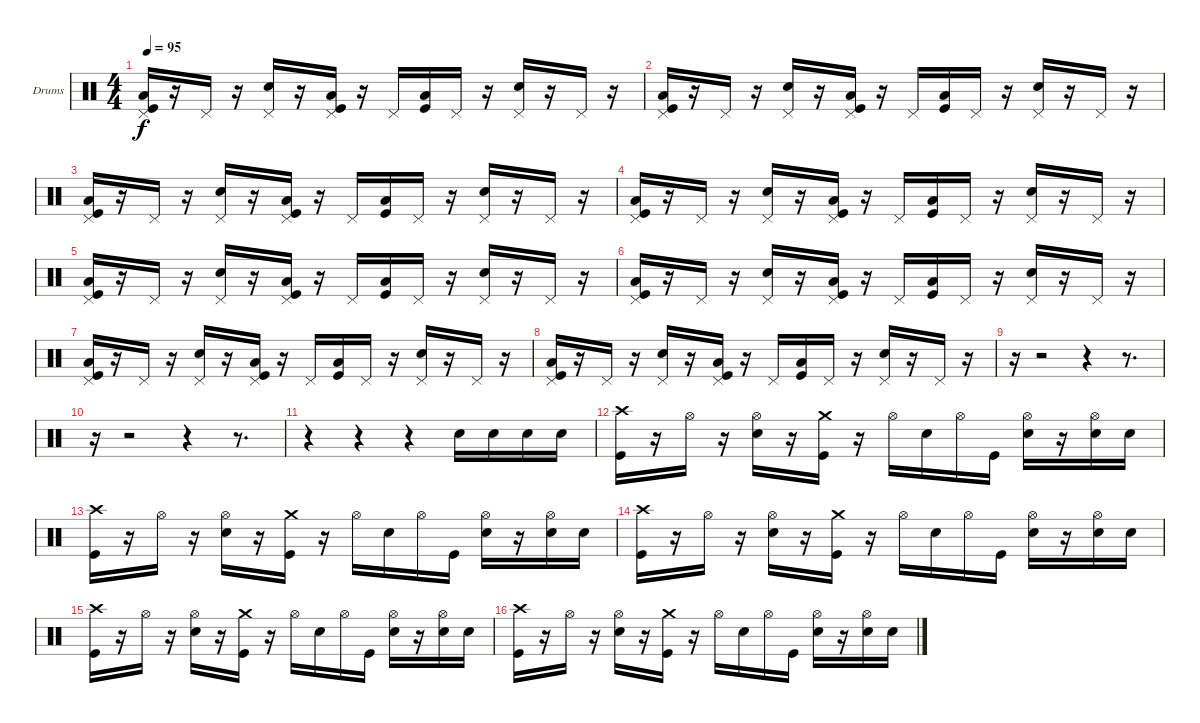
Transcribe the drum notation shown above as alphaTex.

\bracketExtendMode groupsimilarinstruments
\firstSystemTrackNameOrientation horizontal
\otherSystemsTrackNameOrientation horizontal
\track ("Drumkit" "Drums") {instrument percussion}
\staff {score}
\articulation defaults
\ts (4 4)
\tempo 95
\clef neutral
\ks c
("Pedal Hi-Hat (hit)" "Low Tom (hit)" "Kick (hit)").16{dy f} r.16 "Pedal Hi-Hat (hit)".16 r.16 ("Pedal Hi-Hat (hit)" "Snare (hit) 2").16 r.16 ("Pedal Hi-Hat (hit)" "Low Tom (hit)" "Kick (hit)").16 r.16 "Pedal Hi-Hat (hit)".16 ("Low Tom (hit)" "Kick (hit)").16 "Pedal Hi-Hat (hit)".16 r.16 ("Pedal Hi-Hat (hit)" "Snare (hit) 2").16 r.16 "Pedal Hi-Hat (hit)".16 r.16 |
("Pedal Hi-Hat (hit)" "Low Tom (hit)" "Kick (hit)").16 r.16 "Pedal Hi-Hat (hit)".16 r.16 ("Pedal Hi-Hat (hit)" "Snare (hit) 2").16 r.16 ("Pedal Hi-Hat (hit)" "Low Tom (hit)" "Kick (hit)").16 r.16 "Pedal Hi-Hat (hit)".16 ("Low Tom (hit)" "Kick (hit)").16 "Pedal Hi-Hat (hit)".16 r.16 ("Pedal Hi-Hat (hit)" "Snare (hit) 2").16 r.16 "Pedal Hi-Hat (hit)".16 r.16 |
("Pedal Hi-Hat (hit)" "Low Tom (hit)" "Kick (hit)").16 r.16 "Pedal Hi-Hat (hit)".16 r.16 ("Pedal Hi-Hat (hit)" "Snare (hit) 2").16 r.16 ("Pedal Hi-Hat (hit)" "Low Tom (hit)" "Kick (hit)").16 r.16 "Pedal Hi-Hat (hit)".16 ("Low Tom (hit)" "Kick (hit)").16 "Pedal Hi-Hat (hit)".16 r.16 ("Pedal Hi-Hat (hit)" "Snare (hit) 2").16 r.16 "Pedal Hi-Hat (hit)".16 r.16 |
("Pedal Hi-Hat (hit)" "Low Tom (hit)" "Kick (hit)").16 r.16 "Pedal Hi-Hat (hit)".16 r.16 ("Pedal Hi-Hat (hit)" "Snare (hit) 2").16 r.16 ("Pedal Hi-Hat (hit)" "Low Tom (hit)" "Kick (hit)").16 r.16 "Pedal Hi-Hat (hit)".16 ("Low Tom (hit)" "Kick (hit)").16 "Pedal Hi-Hat (hit)".16 r.16 ("Pedal Hi-Hat (hit)" "Snare (hit) 2").16 r.16 "Pedal Hi-Hat (hit)".16 r.16 |
("Pedal Hi-Hat (hit)" "Low Tom (hit)" "Kick (hit)").16 r.16 "Pedal Hi-Hat (hit)".16 r.16 ("Pedal Hi-Hat (hit)" "Snare (hit) 2").16 r.16 ("Pedal Hi-Hat (hit)" "Low Tom (hit)" "Kick (hit)").16 r.16 "Pedal Hi-Hat (hit)".16 ("Low Tom (hit)" "Kick (hit)").16 "Pedal Hi-Hat (hit)".16 r.16 ("Pedal Hi-Hat (hit)" "Snare (hit) 2").16 r.16 "Pedal Hi-Hat (hit)".16 r.16 |
("Pedal Hi-Hat (hit)" "Low Tom (hit)" "Kick (hit)").16 r.16 "Pedal Hi-Hat (hit)".16 r.16 ("Pedal Hi-Hat (hit)" "Snare (hit) 2").16 r.16 ("Pedal Hi-Hat (hit)" "Low Tom (hit)" "Kick (hit)").16 r.16 "Pedal Hi-Hat (hit)".16 ("Low Tom (hit)" "Kick (hit)").16 "Pedal Hi-Hat (hit)".16 r.16 ("Pedal Hi-Hat (hit)" "Snare (hit) 2").16 r.16 "Pedal Hi-Hat (hit)".16 r.16 |
("Pedal Hi-Hat (hit)" "Low Tom (hit)" "Kick (hit)").16 r.16 "Pedal Hi-Hat (hit)".16 r.16 ("Pedal Hi-Hat (hit)" "Snare (hit) 2").16 r.16 ("Pedal Hi-Hat (hit)" "Low Tom (hit)" "Kick (hit)").16 r.16 "Pedal Hi-Hat (hit)".16 ("Low Tom (hit)" "Kick (hit)").16 "Pedal Hi-Hat (hit)".16 r.16 ("Pedal Hi-Hat (hit)" "Snare (hit) 2").16 r.16 "Pedal Hi-Hat (hit)".16 r.16 |
("Pedal Hi-Hat (hit)" "Low Tom (hit)" "Kick (hit)").16 r.16 "Pedal Hi-Hat (hit)".16 r.16 ("Pedal Hi-Hat (hit)" "Snare (hit) 2").16 r.16 ("Pedal Hi-Hat (hit)" "Low Tom (hit)" "Kick (hit)").16 r.16 "Pedal Hi-Hat (hit)".16 ("Low Tom (hit)" "Kick (hit)").16 "Pedal Hi-Hat (hit)".16 r.16 ("Pedal Hi-Hat (hit)" "Snare (hit) 2").16 r.16 "Pedal Hi-Hat (hit)".16 r.16 |
r.16 r.2 r.4 r.8{d} |
r.16 r.2 r.4 r.8{d} |
r.4 r.4 r.4 "Snare (hit) 2".16 "Snare (hit) 2".16 "Snare (hit) 2".16 "Snare (hit) 2".16 |
("Crash high (hit)" "Kick (hit)").16 r.16 "Hi-Hat (open)".16 r.16 ("Hi-Hat (open)" "Snare (hit) 2").16 r.16 ("Crash medium (hit)" "Kick (hit)").16 r.16 "Hi-Hat (open)".16 "Snare (hit) 2".16 "Hi-Hat (open)".16 "Kick (hit)".16 ("Hi-Hat (open)" "Snare (hit) 2").16 r.16 ("Hi-Hat (open)" "Snare (hit) 2").16 "Snare (hit) 2".16 |
("Crash high (hit)" "Kick (hit)").16 r.16 "Hi-Hat (open)".16 r.16 ("Hi-Hat (open)" "Snare (hit) 2").16 r.16 ("Crash medium (hit)" "Kick (hit)").16 r.16 "Hi-Hat (open)".16 "Snare (hit) 2".16 "Hi-Hat (open)".16 "Kick (hit)".16 ("Hi-Hat (open)" "Snare (hit) 2").16 r.16 ("Hi-Hat (open)" "Snare (hit) 2").16 "Snare (hit) 2".16 |
("Crash high (hit)" "Kick (hit)").16 r.16 "Hi-Hat (open)".16 r.16 ("Hi-Hat (open)" "Snare (hit) 2").16 r.16 ("Crash medium (hit)" "Kick (hit)").16 r.16 "Hi-Hat (open)".16 "Snare (hit) 2".16 "Hi-Hat (open)".16 "Kick (hit)".16 ("Hi-Hat (open)" "Snare (hit) 2").16 r.16 ("Hi-Hat (open)" "Snare (hit) 2").16 "Snare (hit) 2".16 |
("Crash high (hit)" "Kick (hit)").16 r.16 "Hi-Hat (open)".16 r.16 ("Hi-Hat (open)" "Snare (hit) 2").16 r.16 ("Crash medium (hit)" "Kick (hit)").16 r.16 "Hi-Hat (open)".16 "Snare (hit) 2".16 "Hi-Hat (open)".16 "Kick (hit)".16 ("Hi-Hat (open)" "Snare (hit) 2").16 r.16 ("Hi-Hat (open)" "Snare (hit) 2").16 "Snare (hit) 2".16 |
("Crash high (hit)" "Kick (hit)").16 r.16 "Hi-Hat (open)".16 r.16 ("Hi-Hat (open)" "Snare (hit) 2").16 r.16 ("Crash medium (hit)" "Kick (hit)").16 r.16 "Hi-Hat (open)".16 "Snare (hit) 2".16 "Hi-Hat (open)".16 "Kick (hit)".16 ("Hi-Hat (open)" "Snare (hit) 2").16 r.16 ("Hi-Hat (open)" "Snare (hit) 2").16 "Snare (hit) 2".16
